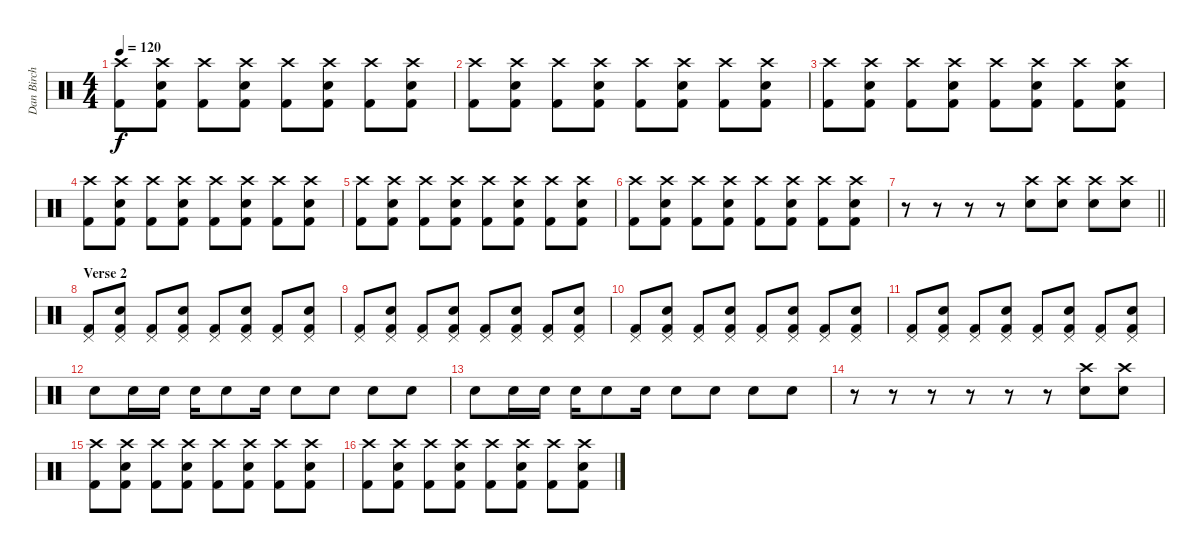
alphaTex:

\track ("Dan Birch" "Dan Birch") {instrument percussion}
\staff {score}
\articulation defaults
\ts (4 4)
\tempo 120
\clef neutral
\ks c
("Crash high (hit)" "Kick (hit) 2").8{dy f} ("Crash high (hit)" "Snare (hit) 2" "Kick (hit) 2").8 ("Crash high (hit)" "Kick (hit) 2").8 ("Crash high (hit)" "Snare (hit) 2" "Kick (hit) 2").8 ("Crash high (hit)" "Kick (hit) 2").8 ("Crash high (hit)" "Snare (hit) 2" "Kick (hit) 2").8 ("Crash high (hit)" "Kick (hit) 2").8 ("Crash high (hit)" "Snare (hit) 2" "Kick (hit) 2").8 |
("Crash high (hit)" "Kick (hit) 2").8 ("Crash high (hit)" "Snare (hit) 2" "Kick (hit) 2").8 ("Crash high (hit)" "Kick (hit) 2").8 ("Crash high (hit)" "Snare (hit) 2" "Kick (hit) 2").8 ("Crash high (hit)" "Kick (hit) 2").8 ("Crash high (hit)" "Snare (hit) 2" "Kick (hit) 2").8 ("Crash high (hit)" "Kick (hit) 2").8 ("Crash high (hit)" "Snare (hit) 2" "Kick (hit) 2").8 |
("Crash high (hit)" "Kick (hit) 2").8 ("Crash high (hit)" "Snare (hit) 2" "Kick (hit) 2").8 ("Crash high (hit)" "Kick (hit) 2").8 ("Crash high (hit)" "Snare (hit) 2" "Kick (hit) 2").8 ("Crash high (hit)" "Kick (hit) 2").8 ("Crash high (hit)" "Snare (hit) 2" "Kick (hit) 2").8 ("Crash high (hit)" "Kick (hit) 2").8 ("Crash high (hit)" "Snare (hit) 2" "Kick (hit) 2").8 |
("Crash high (hit)" "Kick (hit) 2").8 ("Crash high (hit)" "Snare (hit) 2" "Kick (hit) 2").8 ("Crash high (hit)" "Kick (hit) 2").8 ("Crash high (hit)" "Snare (hit) 2" "Kick (hit) 2").8 ("Crash high (hit)" "Kick (hit) 2").8 ("Crash high (hit)" "Snare (hit) 2" "Kick (hit) 2").8 ("Crash high (hit)" "Kick (hit) 2").8 ("Crash high (hit)" "Snare (hit) 2" "Kick (hit) 2").8 |
("Crash high (hit)" "Kick (hit) 2").8 ("Crash high (hit)" "Snare (hit) 2" "Kick (hit) 2").8 ("Crash high (hit)" "Kick (hit) 2").8 ("Crash high (hit)" "Snare (hit) 2" "Kick (hit) 2").8 ("Crash high (hit)" "Kick (hit) 2").8 ("Crash high (hit)" "Snare (hit) 2" "Kick (hit) 2").8 ("Crash high (hit)" "Kick (hit) 2").8 ("Crash high (hit)" "Snare (hit) 2" "Kick (hit) 2").8 |
("Crash high (hit)" "Kick (hit) 2").8 ("Crash high (hit)" "Snare (hit) 2" "Kick (hit) 2").8 ("Crash high (hit)" "Kick (hit) 2").8 ("Crash high (hit)" "Snare (hit) 2" "Kick (hit) 2").8 ("Crash high (hit)" "Kick (hit) 2").8 ("Crash high (hit)" "Snare (hit) 2" "Kick (hit) 2").8 ("Crash high (hit)" "Kick (hit) 2").8 ("Crash high (hit)" "Snare (hit) 2" "Kick (hit) 2").8 |
\barLineRight lightlight
r.8 r.8 r.8 r.8 ("Crash high (hit)" "Snare (hit) 2").8 ("Crash high (hit)" "Snare (hit) 2").8 ("Crash high (hit)" "Snare (hit) 2").8 ("Crash high (hit)" "Snare (hit) 2").8 |
\section ("" "Verse 2")
("Pedal Hi-Hat (hit)" "Kick (hit) 2").8 ("Pedal Hi-Hat (hit)" "Snare (hit) 2" "Kick (hit) 2").8 ("Pedal Hi-Hat (hit)" "Kick (hit) 2").8 ("Pedal Hi-Hat (hit)" "Snare (hit) 2" "Kick (hit) 2").8 ("Pedal Hi-Hat (hit)" "Kick (hit) 2").8 ("Pedal Hi-Hat (hit)" "Snare (hit) 2" "Kick (hit) 2").8 ("Pedal Hi-Hat (hit)" "Kick (hit) 2").8 ("Pedal Hi-Hat (hit)" "Snare (hit) 2" "Kick (hit) 2").8 |
("Pedal Hi-Hat (hit)" "Kick (hit) 2").8 ("Pedal Hi-Hat (hit)" "Snare (hit) 2" "Kick (hit) 2").8 ("Pedal Hi-Hat (hit)" "Kick (hit) 2").8 ("Pedal Hi-Hat (hit)" "Snare (hit) 2" "Kick (hit) 2").8 ("Pedal Hi-Hat (hit)" "Kick (hit) 2").8 ("Pedal Hi-Hat (hit)" "Snare (hit) 2" "Kick (hit) 2").8 ("Pedal Hi-Hat (hit)" "Kick (hit) 2").8 ("Pedal Hi-Hat (hit)" "Snare (hit) 2" "Kick (hit) 2").8 |
("Pedal Hi-Hat (hit)" "Kick (hit) 2").8 ("Pedal Hi-Hat (hit)" "Snare (hit) 2" "Kick (hit) 2").8 ("Pedal Hi-Hat (hit)" "Kick (hit) 2").8 ("Pedal Hi-Hat (hit)" "Snare (hit) 2" "Kick (hit) 2").8 ("Pedal Hi-Hat (hit)" "Kick (hit) 2").8 ("Pedal Hi-Hat (hit)" "Snare (hit) 2" "Kick (hit) 2").8 ("Pedal Hi-Hat (hit)" "Kick (hit) 2").8 ("Pedal Hi-Hat (hit)" "Snare (hit) 2" "Kick (hit) 2").8 |
("Pedal Hi-Hat (hit)" "Kick (hit) 2").8 ("Pedal Hi-Hat (hit)" "Snare (hit) 2" "Kick (hit) 2").8 ("Pedal Hi-Hat (hit)" "Kick (hit) 2").8 ("Pedal Hi-Hat (hit)" "Snare (hit) 2" "Kick (hit) 2").8 ("Pedal Hi-Hat (hit)" "Kick (hit) 2").8 ("Pedal Hi-Hat (hit)" "Snare (hit) 2" "Kick (hit) 2").8 ("Pedal Hi-Hat (hit)" "Kick (hit) 2").8 ("Pedal Hi-Hat (hit)" "Snare (hit) 2" "Kick (hit) 2").8 |
"Snare (hit) 2".8 "Snare (hit) 2".16 "Snare (hit) 2".16 "Snare (hit) 2".16 "Snare (hit) 2".8 "Snare (hit) 2".16 "Snare (hit) 2".8 "Snare (hit) 2".8 "Snare (hit) 2".8 "Snare (hit) 2".8 |
"Snare (hit) 2".8 "Snare (hit) 2".16 "Snare (hit) 2".16 "Snare (hit) 2".16 "Snare (hit) 2".8 "Snare (hit) 2".16 "Snare (hit) 2".8 "Snare (hit) 2".8 "Snare (hit) 2".8 "Snare (hit) 2".8 |
r.8 r.8 r.8 r.8 r.8 r.8 ("Crash high (hit)" "Snare (hit) 2").8 ("Crash high (hit)" "Snare (hit) 2").8 |
("Crash high (hit)" "Kick (hit) 2").8 ("Crash high (hit)" "Snare (hit) 2" "Kick (hit) 2").8 ("Crash high (hit)" "Kick (hit) 2").8 ("Crash high (hit)" "Snare (hit) 2" "Kick (hit) 2").8 ("Crash high (hit)" "Kick (hit) 2").8 ("Crash high (hit)" "Snare (hit) 2" "Kick (hit) 2").8 ("Crash high (hit)" "Kick (hit) 2").8 ("Crash high (hit)" "Snare (hit) 2" "Kick (hit) 2").8 |
("Crash high (hit)" "Kick (hit) 2").8 ("Crash high (hit)" "Snare (hit) 2" "Kick (hit) 2").8 ("Crash high (hit)" "Kick (hit) 2").8 ("Crash high (hit)" "Snare (hit) 2" "Kick (hit) 2").8 ("Crash high (hit)" "Kick (hit) 2").8 ("Crash high (hit)" "Snare (hit) 2" "Kick (hit) 2").8 ("Crash high (hit)" "Kick (hit) 2").8 ("Crash high (hit)" "Snare (hit) 2" "Kick (hit) 2").8
